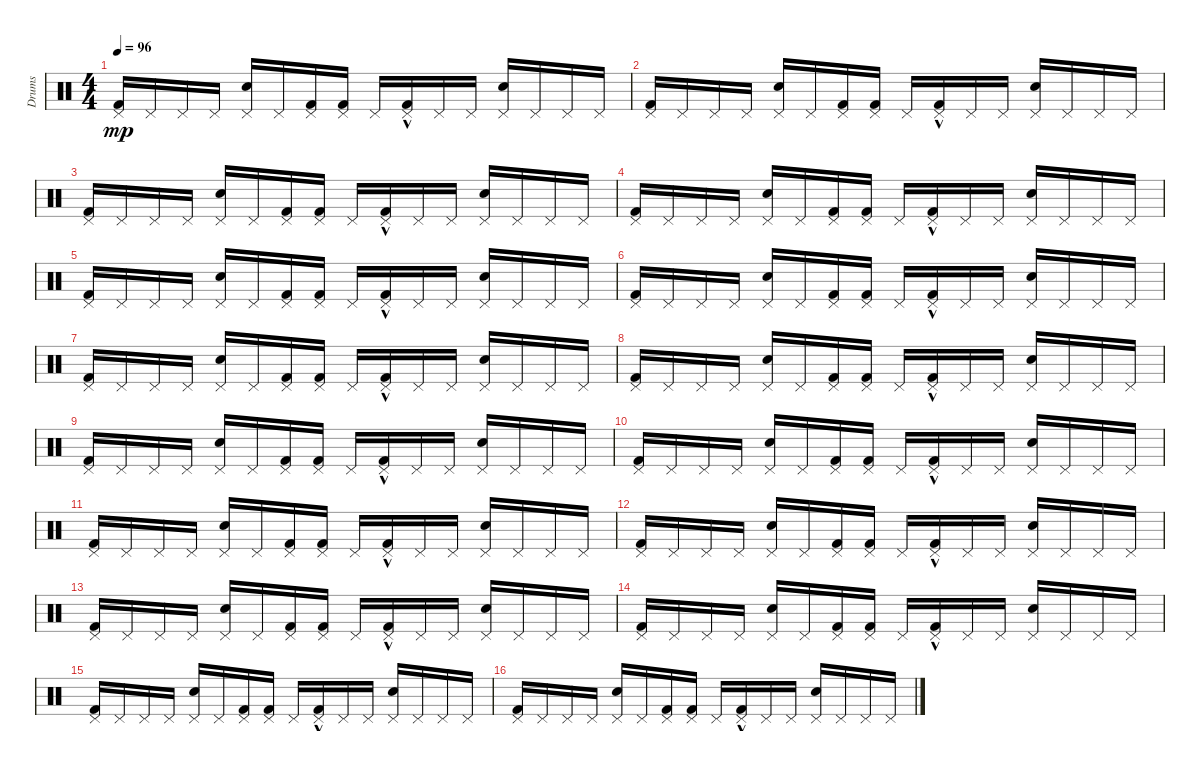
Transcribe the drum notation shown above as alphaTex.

\track ("Drums" "Drums") {instrument percussion}
\staff {score}
\articulation defaults
\ts (4 4)
\tempo 96
\clef neutral
\ks c
("Pedal Hi-Hat (hit)" "Kick (hit) 2").16{dy mp} "Pedal Hi-Hat (hit)".16 "Pedal Hi-Hat (hit)".16 "Pedal Hi-Hat (hit)".16 ("Electric Snare (hit)" "Pedal Hi-Hat (hit)").16 "Pedal Hi-Hat (hit)".16 ("Pedal Hi-Hat (hit)" "Kick (hit) 2").16 ("Pedal Hi-Hat (hit)" "Kick (hit) 2").16 "Pedal Hi-Hat (hit)".16 ("Pedal Hi-Hat (hit)" "Kick (hit) 2"{hac}).16 "Pedal Hi-Hat (hit)".16 "Pedal Hi-Hat (hit)".16 ("Electric Snare (hit)" "Pedal Hi-Hat (hit)").16 "Pedal Hi-Hat (hit)".16 "Pedal Hi-Hat (hit)".16 "Pedal Hi-Hat (hit)".16 |
("Pedal Hi-Hat (hit)" "Kick (hit) 2").16 "Pedal Hi-Hat (hit)".16 "Pedal Hi-Hat (hit)".16 "Pedal Hi-Hat (hit)".16 ("Electric Snare (hit)" "Pedal Hi-Hat (hit)").16 "Pedal Hi-Hat (hit)".16 ("Pedal Hi-Hat (hit)" "Kick (hit) 2").16 ("Pedal Hi-Hat (hit)" "Kick (hit) 2").16 "Pedal Hi-Hat (hit)".16 ("Pedal Hi-Hat (hit)" "Kick (hit) 2"{hac}).16 "Pedal Hi-Hat (hit)".16 "Pedal Hi-Hat (hit)".16 ("Electric Snare (hit)" "Pedal Hi-Hat (hit)").16 "Pedal Hi-Hat (hit)".16 "Pedal Hi-Hat (hit)".16 "Pedal Hi-Hat (hit)".16 |
("Pedal Hi-Hat (hit)" "Kick (hit) 2").16 "Pedal Hi-Hat (hit)".16 "Pedal Hi-Hat (hit)".16 "Pedal Hi-Hat (hit)".16 ("Electric Snare (hit)" "Pedal Hi-Hat (hit)").16 "Pedal Hi-Hat (hit)".16 ("Pedal Hi-Hat (hit)" "Kick (hit) 2").16 ("Pedal Hi-Hat (hit)" "Kick (hit) 2").16 "Pedal Hi-Hat (hit)".16 ("Pedal Hi-Hat (hit)" "Kick (hit) 2"{hac}).16 "Pedal Hi-Hat (hit)".16 "Pedal Hi-Hat (hit)".16 ("Electric Snare (hit)" "Pedal Hi-Hat (hit)").16 "Pedal Hi-Hat (hit)".16 "Pedal Hi-Hat (hit)".16 "Pedal Hi-Hat (hit)".16 |
("Pedal Hi-Hat (hit)" "Kick (hit) 2").16 "Pedal Hi-Hat (hit)".16 "Pedal Hi-Hat (hit)".16 "Pedal Hi-Hat (hit)".16 ("Electric Snare (hit)" "Pedal Hi-Hat (hit)").16 "Pedal Hi-Hat (hit)".16 ("Pedal Hi-Hat (hit)" "Kick (hit) 2").16 ("Pedal Hi-Hat (hit)" "Kick (hit) 2").16 "Pedal Hi-Hat (hit)".16 ("Pedal Hi-Hat (hit)" "Kick (hit) 2"{hac}).16 "Pedal Hi-Hat (hit)".16 "Pedal Hi-Hat (hit)".16 ("Electric Snare (hit)" "Pedal Hi-Hat (hit)").16 "Pedal Hi-Hat (hit)".16 "Pedal Hi-Hat (hit)".16 "Pedal Hi-Hat (hit)".16 |
("Pedal Hi-Hat (hit)" "Kick (hit) 2").16 "Pedal Hi-Hat (hit)".16 "Pedal Hi-Hat (hit)".16 "Pedal Hi-Hat (hit)".16 ("Electric Snare (hit)" "Pedal Hi-Hat (hit)").16 "Pedal Hi-Hat (hit)".16 ("Pedal Hi-Hat (hit)" "Kick (hit) 2").16 ("Pedal Hi-Hat (hit)" "Kick (hit) 2").16 "Pedal Hi-Hat (hit)".16 ("Pedal Hi-Hat (hit)" "Kick (hit) 2"{hac}).16 "Pedal Hi-Hat (hit)".16 "Pedal Hi-Hat (hit)".16 ("Electric Snare (hit)" "Pedal Hi-Hat (hit)").16 "Pedal Hi-Hat (hit)".16 "Pedal Hi-Hat (hit)".16 "Pedal Hi-Hat (hit)".16 |
("Pedal Hi-Hat (hit)" "Kick (hit) 2").16 "Pedal Hi-Hat (hit)".16 "Pedal Hi-Hat (hit)".16 "Pedal Hi-Hat (hit)".16 ("Electric Snare (hit)" "Pedal Hi-Hat (hit)").16 "Pedal Hi-Hat (hit)".16 ("Pedal Hi-Hat (hit)" "Kick (hit) 2").16 ("Pedal Hi-Hat (hit)" "Kick (hit) 2").16 "Pedal Hi-Hat (hit)".16 ("Pedal Hi-Hat (hit)" "Kick (hit) 2"{hac}).16 "Pedal Hi-Hat (hit)".16 "Pedal Hi-Hat (hit)".16 ("Electric Snare (hit)" "Pedal Hi-Hat (hit)").16 "Pedal Hi-Hat (hit)".16 "Pedal Hi-Hat (hit)".16 "Pedal Hi-Hat (hit)".16 |
("Pedal Hi-Hat (hit)" "Kick (hit) 2").16 "Pedal Hi-Hat (hit)".16 "Pedal Hi-Hat (hit)".16 "Pedal Hi-Hat (hit)".16 ("Electric Snare (hit)" "Pedal Hi-Hat (hit)").16 "Pedal Hi-Hat (hit)".16 ("Pedal Hi-Hat (hit)" "Kick (hit) 2").16 ("Pedal Hi-Hat (hit)" "Kick (hit) 2").16 "Pedal Hi-Hat (hit)".16 ("Pedal Hi-Hat (hit)" "Kick (hit) 2"{hac}).16 "Pedal Hi-Hat (hit)".16 "Pedal Hi-Hat (hit)".16 ("Electric Snare (hit)" "Pedal Hi-Hat (hit)").16 "Pedal Hi-Hat (hit)".16 "Pedal Hi-Hat (hit)".16 "Pedal Hi-Hat (hit)".16 |
("Pedal Hi-Hat (hit)" "Kick (hit) 2").16 "Pedal Hi-Hat (hit)".16 "Pedal Hi-Hat (hit)".16 "Pedal Hi-Hat (hit)".16 ("Electric Snare (hit)" "Pedal Hi-Hat (hit)").16 "Pedal Hi-Hat (hit)".16 ("Pedal Hi-Hat (hit)" "Kick (hit) 2").16 ("Pedal Hi-Hat (hit)" "Kick (hit) 2").16 "Pedal Hi-Hat (hit)".16 ("Pedal Hi-Hat (hit)" "Kick (hit) 2"{hac}).16 "Pedal Hi-Hat (hit)".16 "Pedal Hi-Hat (hit)".16 ("Electric Snare (hit)" "Pedal Hi-Hat (hit)").16 "Pedal Hi-Hat (hit)".16 "Pedal Hi-Hat (hit)".16 "Pedal Hi-Hat (hit)".16 |
("Pedal Hi-Hat (hit)" "Kick (hit) 2").16 "Pedal Hi-Hat (hit)".16 "Pedal Hi-Hat (hit)".16 "Pedal Hi-Hat (hit)".16 ("Electric Snare (hit)" "Pedal Hi-Hat (hit)").16 "Pedal Hi-Hat (hit)".16 ("Pedal Hi-Hat (hit)" "Kick (hit) 2").16 ("Pedal Hi-Hat (hit)" "Kick (hit) 2").16 "Pedal Hi-Hat (hit)".16 ("Pedal Hi-Hat (hit)" "Kick (hit) 2"{hac}).16 "Pedal Hi-Hat (hit)".16 "Pedal Hi-Hat (hit)".16 ("Electric Snare (hit)" "Pedal Hi-Hat (hit)").16 "Pedal Hi-Hat (hit)".16 "Pedal Hi-Hat (hit)".16 "Pedal Hi-Hat (hit)".16 |
("Pedal Hi-Hat (hit)" "Kick (hit) 2").16 "Pedal Hi-Hat (hit)".16 "Pedal Hi-Hat (hit)".16 "Pedal Hi-Hat (hit)".16 ("Electric Snare (hit)" "Pedal Hi-Hat (hit)").16 "Pedal Hi-Hat (hit)".16 ("Pedal Hi-Hat (hit)" "Kick (hit) 2").16 ("Pedal Hi-Hat (hit)" "Kick (hit) 2").16 "Pedal Hi-Hat (hit)".16 ("Pedal Hi-Hat (hit)" "Kick (hit) 2"{hac}).16 "Pedal Hi-Hat (hit)".16 "Pedal Hi-Hat (hit)".16 ("Electric Snare (hit)" "Pedal Hi-Hat (hit)").16 "Pedal Hi-Hat (hit)".16 "Pedal Hi-Hat (hit)".16 "Pedal Hi-Hat (hit)".16 |
("Pedal Hi-Hat (hit)" "Kick (hit) 2").16 "Pedal Hi-Hat (hit)".16 "Pedal Hi-Hat (hit)".16 "Pedal Hi-Hat (hit)".16 ("Electric Snare (hit)" "Pedal Hi-Hat (hit)").16 "Pedal Hi-Hat (hit)".16 ("Pedal Hi-Hat (hit)" "Kick (hit) 2").16 ("Pedal Hi-Hat (hit)" "Kick (hit) 2").16 "Pedal Hi-Hat (hit)".16 ("Pedal Hi-Hat (hit)" "Kick (hit) 2"{hac}).16 "Pedal Hi-Hat (hit)".16 "Pedal Hi-Hat (hit)".16 ("Electric Snare (hit)" "Pedal Hi-Hat (hit)").16 "Pedal Hi-Hat (hit)".16 "Pedal Hi-Hat (hit)".16 "Pedal Hi-Hat (hit)".16 |
("Pedal Hi-Hat (hit)" "Kick (hit) 2").16 "Pedal Hi-Hat (hit)".16 "Pedal Hi-Hat (hit)".16 "Pedal Hi-Hat (hit)".16 ("Electric Snare (hit)" "Pedal Hi-Hat (hit)").16 "Pedal Hi-Hat (hit)".16 ("Pedal Hi-Hat (hit)" "Kick (hit) 2").16 ("Pedal Hi-Hat (hit)" "Kick (hit) 2").16 "Pedal Hi-Hat (hit)".16 ("Pedal Hi-Hat (hit)" "Kick (hit) 2"{hac}).16 "Pedal Hi-Hat (hit)".16 "Pedal Hi-Hat (hit)".16 ("Electric Snare (hit)" "Pedal Hi-Hat (hit)").16 "Pedal Hi-Hat (hit)".16 "Pedal Hi-Hat (hit)".16 "Pedal Hi-Hat (hit)".16 |
("Pedal Hi-Hat (hit)" "Kick (hit) 2").16 "Pedal Hi-Hat (hit)".16 "Pedal Hi-Hat (hit)".16 "Pedal Hi-Hat (hit)".16 ("Electric Snare (hit)" "Pedal Hi-Hat (hit)").16 "Pedal Hi-Hat (hit)".16 ("Pedal Hi-Hat (hit)" "Kick (hit) 2").16 ("Pedal Hi-Hat (hit)" "Kick (hit) 2").16 "Pedal Hi-Hat (hit)".16 ("Pedal Hi-Hat (hit)" "Kick (hit) 2"{hac}).16 "Pedal Hi-Hat (hit)".16 "Pedal Hi-Hat (hit)".16 ("Electric Snare (hit)" "Pedal Hi-Hat (hit)").16 "Pedal Hi-Hat (hit)".16 "Pedal Hi-Hat (hit)".16 "Pedal Hi-Hat (hit)".16 |
("Pedal Hi-Hat (hit)" "Kick (hit) 2").16 "Pedal Hi-Hat (hit)".16 "Pedal Hi-Hat (hit)".16 "Pedal Hi-Hat (hit)".16 ("Electric Snare (hit)" "Pedal Hi-Hat (hit)").16 "Pedal Hi-Hat (hit)".16 ("Pedal Hi-Hat (hit)" "Kick (hit) 2").16 ("Pedal Hi-Hat (hit)" "Kick (hit) 2").16 "Pedal Hi-Hat (hit)".16 ("Pedal Hi-Hat (hit)" "Kick (hit) 2"{hac}).16 "Pedal Hi-Hat (hit)".16 "Pedal Hi-Hat (hit)".16 ("Electric Snare (hit)" "Pedal Hi-Hat (hit)").16 "Pedal Hi-Hat (hit)".16 "Pedal Hi-Hat (hit)".16 "Pedal Hi-Hat (hit)".16 |
("Pedal Hi-Hat (hit)" "Kick (hit) 2").16 "Pedal Hi-Hat (hit)".16 "Pedal Hi-Hat (hit)".16 "Pedal Hi-Hat (hit)".16 ("Electric Snare (hit)" "Pedal Hi-Hat (hit)").16 "Pedal Hi-Hat (hit)".16 ("Pedal Hi-Hat (hit)" "Kick (hit) 2").16 ("Pedal Hi-Hat (hit)" "Kick (hit) 2").16 "Pedal Hi-Hat (hit)".16 ("Pedal Hi-Hat (hit)" "Kick (hit) 2"{hac}).16 "Pedal Hi-Hat (hit)".16 "Pedal Hi-Hat (hit)".16 ("Electric Snare (hit)" "Pedal Hi-Hat (hit)").16 "Pedal Hi-Hat (hit)".16 "Pedal Hi-Hat (hit)".16 "Pedal Hi-Hat (hit)".16 |
("Pedal Hi-Hat (hit)" "Kick (hit) 2").16 "Pedal Hi-Hat (hit)".16 "Pedal Hi-Hat (hit)".16 "Pedal Hi-Hat (hit)".16 ("Electric Snare (hit)" "Pedal Hi-Hat (hit)").16 "Pedal Hi-Hat (hit)".16 ("Pedal Hi-Hat (hit)" "Kick (hit) 2").16 ("Pedal Hi-Hat (hit)" "Kick (hit) 2").16 "Pedal Hi-Hat (hit)".16 ("Pedal Hi-Hat (hit)" "Kick (hit) 2"{hac}).16 "Pedal Hi-Hat (hit)".16 "Pedal Hi-Hat (hit)".16 ("Electric Snare (hit)" "Pedal Hi-Hat (hit)").16 "Pedal Hi-Hat (hit)".16 "Pedal Hi-Hat (hit)".16 "Pedal Hi-Hat (hit)".16
